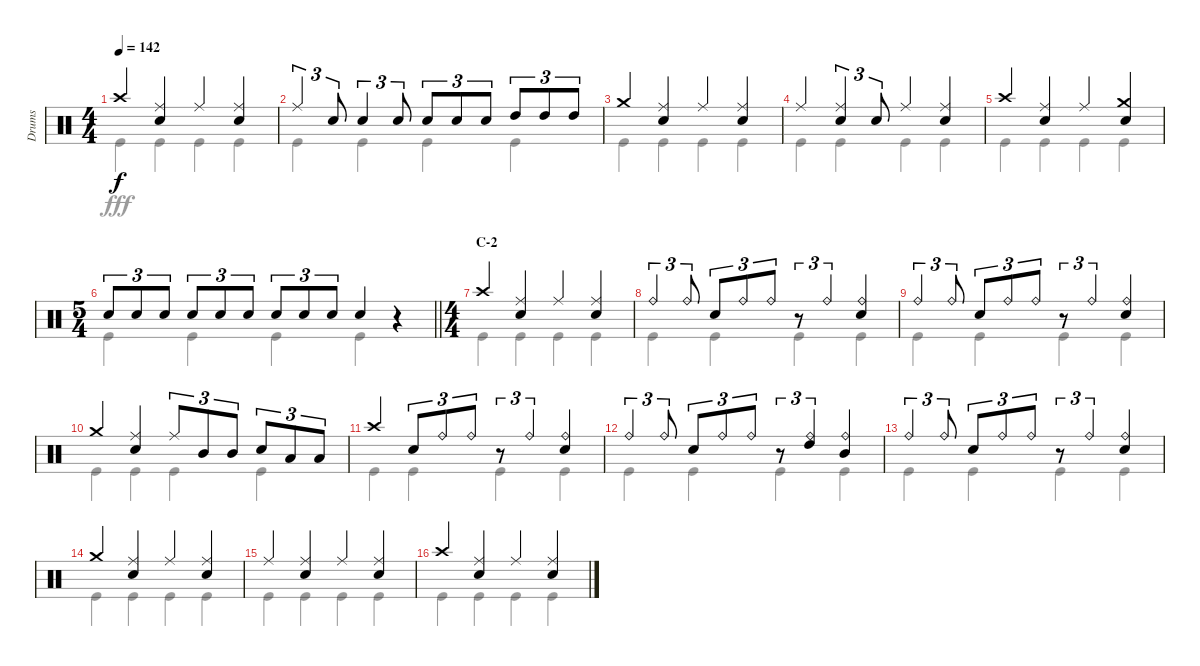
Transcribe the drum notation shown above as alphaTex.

\track ("Drums" "Drums") {instrument percussion}
\staff {score}
\articulation defaults
\voice
\ts (4 4)
\tempo 142
\clef neutral
\ks c "Crash high (hit)".4{dy f}
("Ride (middle)" "Snare (hit) 2").4 "Ride (middle)".4 ("Ride (middle)" "Snare (hit) 2").4 |
"Ride (middle)".4{tu (3 2)} "Snare (hit) 2".8{tu (3 2)} "Snare (hit) 2".4{tu (3 2)} "Snare (hit) 2".8{tu (3 2)} "Snare (hit) 2".8{tu (3 2)} "Snare (hit) 2".8{tu (3 2)} "Snare (hit) 2".8{tu (3 2)} "High Tom (hit)".8{tu (3 2)} "High Tom (hit)".8{tu (3 2)} "High Tom (hit)".8{tu (3 2)} |
"Crash medium (hit)".4 ("Ride (middle)" "Snare (hit) 2").4 "Ride (middle)".4 ("Ride (middle)" "Snare (hit) 2").4 |
"Ride (middle)".4 ("Ride (middle)" "Snare (hit) 2").4{tu (3 2)} "Snare (hit) 2".8{tu (3 2)} "Ride (middle)".4 ("Ride (middle)" "Snare (hit) 2").4 |
"Crash high (hit)".4 ("Ride (middle)" "Snare (hit) 2").4 "Ride (middle)".4 ("Crash medium (hit)" "Snare (hit) 2").4 |
\ts (5 4)
\barLineRight lightlight "Snare (hit) 2".8{tu (3 2)} "Snare (hit) 2".8{tu (3 2)} "Snare (hit) 2".8{tu (3 2)} "Snare (hit) 2".8{tu (3 2)} "Snare (hit) 2".8{tu (3 2)} "Snare (hit) 2".8{tu (3 2)} "Snare (hit) 2".8{tu (3 2)} "Snare (hit) 2".8{tu (3 2)} "Snare (hit) 2".8{tu (3 2)} "Snare (hit) 2".4
r.4 |
\ts (4 4)
\section ("" "C-2")
"Crash high (hit)".4 ("Ride (middle)" "Snare (hit) 2").4 "Ride (middle)".4 ("Ride (middle)" "Snare (hit) 2").4 |
"Ride (bell)".4{tu (3 2)} "Ride (bell)".8{tu (3 2)} "Snare (hit) 2".8{tu (3 2)} "Ride (bell)".8{tu (3 2)} "Ride (bell)".8{tu (3 2)} r.8{tu (3 2)} "Ride (bell)".4{tu (3 2)} ("Ride (bell)" "Snare (hit) 2").4 |
"Ride (bell)".4{tu (3 2)} "Ride (bell)".8{tu (3 2)} "Snare (hit) 2".8{tu (3 2)} "Ride (bell)".8{tu (3 2)} "Ride (bell)".8{tu (3 2)} r.8{tu (3 2)} "Ride (bell)".4{tu (3 2)} ("Ride (bell)" "Snare (hit) 2").4 |
"Crash medium (hit)".4 ("Ride (middle)" "Snare (hit) 2").4 "Ride (middle)".8{tu (3 2)} "Mid Tom (hit)".8{tu (3 2)} "Mid Tom (hit)".8{tu (3 2)} "Snare (hit) 2".8{tu (3 2)} "Low Tom (hit)".8{tu (3 2)} "Low Tom (hit)".8{tu (3 2)} |
"Crash high (hit)".4 "Snare (hit) 2".8{tu (3 2)} "Ride (bell)".8{tu (3 2)} "Ride (bell)".8{tu (3 2)} r.8{tu (3 2)} "Ride (bell)".4{tu (3 2)} ("Ride (bell)" "Snare (hit) 2").4 |
"Ride (bell)".4{tu (3 2)} "Ride (bell)".8{tu (3 2)} "Snare (hit) 2".8{tu (3 2)} "Ride (bell)".8{tu (3 2)} "Ride (bell)".8{tu (3 2)} r.8{tu (3 2)} ("Ride (bell)" "High Tom (hit)").4{tu (3 2)} ("Ride (bell)" "Mid Tom (hit)").4 |
"Ride (bell)".4{tu (3 2)} "Ride (bell)".8{tu (3 2)} "Snare (hit) 2".8{tu (3 2)} "Ride (bell)".8{tu (3 2)} "Ride (bell)".8{tu (3 2)} r.8{tu (3 2)} "Ride (bell)".4{tu (3 2)} ("Ride (bell)" "Snare (hit) 2").4 |
"Crash medium (hit)".4 ("Ride (middle)" "Snare (hit) 2").4 "Ride (middle)".4 ("Ride (middle)" "Snare (hit) 2").4 |
"Ride (middle)".4 ("Ride (middle)" "Snare (hit) 2").4 "Ride (middle)".4 ("Ride (middle)" "Snare (hit) 2").4 |
"Crash high (hit)".4 ("Ride (middle)" "Snare (hit) 2").4 "Ride (middle)".4 ("Ride (middle)" "Snare (hit) 2").4
\voice
\clef neutral
\ottava regular
\simile none
\ks c "Kick (hit)".4{dy fff} "Kick (hit)".4 "Kick (hit)".4 "Kick (hit)".4
|
"Kick (hit)".4 "Kick (hit)".4 "Kick (hit)".4 "Kick (hit)".4 |
"Kick (hit)".4 "Kick (hit)".4 "Kick (hit)".4 "Kick (hit)".4 |
"Kick (hit)".4 "Kick (hit)".4 "Kick (hit)".4 "Kick (hit)".4 |
"Kick (hit)".4 "Kick (hit)".4 "Kick (hit)".4 "Kick (hit)".4 |
\barLineRight lightlight "Kick (hit)".4 "Kick (hit)".4 "Kick (hit)".4 "Kick (hit)".4
r.4 |
"Kick (hit)".4 "Kick (hit)".4 "Kick (hit)".4 "Kick (hit)".4 |
"Kick (hit)".4 "Kick (hit)".4 "Kick (hit)".4 "Kick (hit)".4 |
"Kick (hit)".4 "Kick (hit)".4 "Kick (hit)".4 "Kick (hit)".4 |
"Kick (hit)".4 "Kick (hit)".4 "Kick (hit)".4 "Kick (hit)".4 |
"Kick (hit)".4 "Kick (hit)".4 "Kick (hit)".4 "Kick (hit)".4 |
"Kick (hit)".4 "Kick (hit)".4 "Kick (hit)".4 "Kick (hit)".4 |
"Kick (hit)".4 "Kick (hit)".4 "Kick (hit)".4 "Kick (hit)".4 |
"Kick (hit)".4 "Kick (hit)".4 "Kick (hit)".4 "Kick (hit)".4 |
"Kick (hit)".4 "Kick (hit)".4 "Kick (hit)".4 "Kick (hit)".4 |
"Kick (hit)".4 "Kick (hit)".4 "Kick (hit)".4 "Kick (hit)".4
